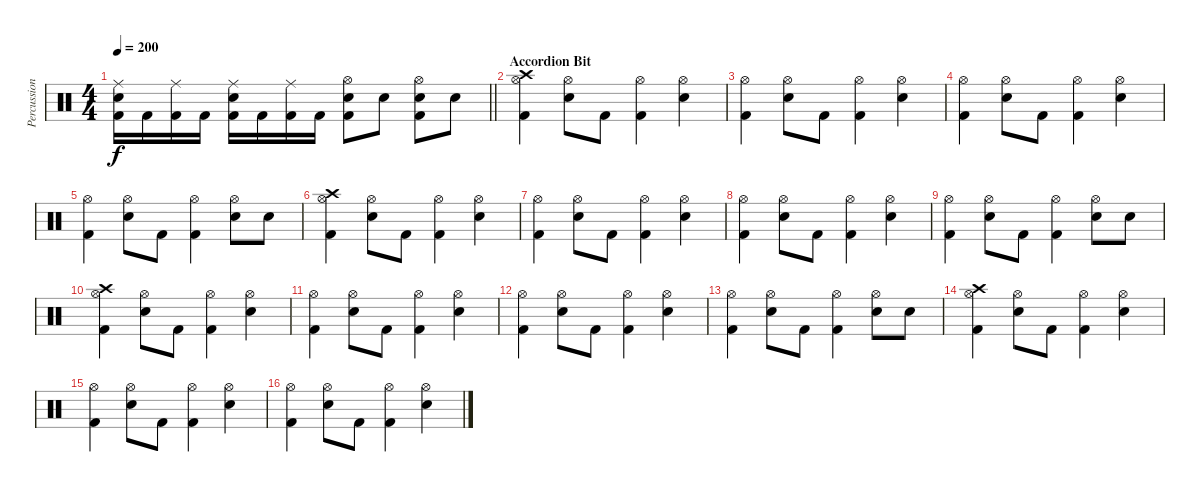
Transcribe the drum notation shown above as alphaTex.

\track ("Percussion" "Percussion") {instrument percussion}
\staff {score}
\articulation defaults
\ts (4 4)
\tempo 200
\clef neutral
\barLineRight lightlight
\ks c
("Ride (middle)" "Snare (hit) 2" "Kick (hit) 2").16{dy f} "Kick (hit) 2".16 ("Ride (middle)" "Kick (hit) 2").16 "Kick (hit) 2".16 ("Ride (middle)" "Snare (hit) 2" "Kick (hit) 2").16 "Kick (hit) 2".16 ("Ride (middle)" "Kick (hit) 2").16 "Kick (hit) 2".16 ("Hi-Hat (open)" "Snare (hit) 2" "Kick (hit) 2").8 "Snare (hit) 2".8 ("Hi-Hat (open)" "Snare (hit) 2" "Kick (hit) 2").8 "Snare (hit) 2".8 |
\section ("" "Accordion Bit")
("Crash high (hit)" "Hi-Hat (open)" "Kick (hit) 2").4 ("Hi-Hat (open)" "Snare (hit) 2").8 "Kick (hit) 2".8 ("Hi-Hat (open)" "Kick (hit) 2").4 ("Hi-Hat (open)" "Snare (hit) 2").4 |
("Hi-Hat (open)" "Kick (hit) 2").4 ("Hi-Hat (open)" "Snare (hit) 2").8 "Kick (hit) 2".8 ("Hi-Hat (open)" "Kick (hit) 2").4 ("Hi-Hat (open)" "Snare (hit) 2").4 |
("Hi-Hat (open)" "Kick (hit) 2").4 ("Hi-Hat (open)" "Snare (hit) 2").8 "Kick (hit) 2".8 ("Hi-Hat (open)" "Kick (hit) 2").4 ("Hi-Hat (open)" "Snare (hit) 2").4 |
("Hi-Hat (open)" "Kick (hit) 2").4 ("Hi-Hat (open)" "Snare (hit) 2").8 "Kick (hit) 2".8 ("Hi-Hat (open)" "Kick (hit) 2").4 ("Hi-Hat (open)" "Snare (hit) 2").8 "Snare (hit) 2".8 |
("Crash high (hit)" "Hi-Hat (open)" "Kick (hit) 2").4 ("Hi-Hat (open)" "Snare (hit) 2").8 "Kick (hit) 2".8 ("Hi-Hat (open)" "Kick (hit) 2").4 ("Hi-Hat (open)" "Snare (hit) 2").4 |
("Hi-Hat (open)" "Kick (hit) 2").4 ("Hi-Hat (open)" "Snare (hit) 2").8 "Kick (hit) 2".8 ("Hi-Hat (open)" "Kick (hit) 2").4 ("Hi-Hat (open)" "Snare (hit) 2").4 |
("Hi-Hat (open)" "Kick (hit) 2").4 ("Hi-Hat (open)" "Snare (hit) 2").8 "Kick (hit) 2".8 ("Hi-Hat (open)" "Kick (hit) 2").4 ("Hi-Hat (open)" "Snare (hit) 2").4 |
("Hi-Hat (open)" "Kick (hit) 2").4 ("Hi-Hat (open)" "Snare (hit) 2").8 "Kick (hit) 2".8 ("Hi-Hat (open)" "Kick (hit) 2").4 ("Hi-Hat (open)" "Snare (hit) 2").8 "Snare (hit) 2".8 |
("Crash high (hit)" "Hi-Hat (open)" "Kick (hit) 2").4 ("Hi-Hat (open)" "Snare (hit) 2").8 "Kick (hit) 2".8 ("Hi-Hat (open)" "Kick (hit) 2").4 ("Hi-Hat (open)" "Snare (hit) 2").4 |
("Hi-Hat (open)" "Kick (hit) 2").4 ("Hi-Hat (open)" "Snare (hit) 2").8 "Kick (hit) 2".8 ("Hi-Hat (open)" "Kick (hit) 2").4 ("Hi-Hat (open)" "Snare (hit) 2").4 |
("Hi-Hat (open)" "Kick (hit) 2").4 ("Hi-Hat (open)" "Snare (hit) 2").8 "Kick (hit) 2".8 ("Hi-Hat (open)" "Kick (hit) 2").4 ("Hi-Hat (open)" "Snare (hit) 2").4 |
("Hi-Hat (open)" "Kick (hit) 2").4 ("Hi-Hat (open)" "Snare (hit) 2").8 "Kick (hit) 2".8 ("Hi-Hat (open)" "Kick (hit) 2").4 ("Hi-Hat (open)" "Snare (hit) 2").8 "Snare (hit) 2".8 |
("Crash high (hit)" "Hi-Hat (open)" "Kick (hit) 2").4 ("Hi-Hat (open)" "Snare (hit) 2").8 "Kick (hit) 2".8 ("Hi-Hat (open)" "Kick (hit) 2").4 ("Hi-Hat (open)" "Snare (hit) 2").4 |
("Hi-Hat (open)" "Kick (hit) 2").4 ("Hi-Hat (open)" "Snare (hit) 2").8 "Kick (hit) 2".8 ("Hi-Hat (open)" "Kick (hit) 2").4 ("Hi-Hat (open)" "Snare (hit) 2").4 |
("Hi-Hat (open)" "Kick (hit) 2").4 ("Hi-Hat (open)" "Snare (hit) 2").8 "Kick (hit) 2".8 ("Hi-Hat (open)" "Kick (hit) 2").4 ("Hi-Hat (open)" "Snare (hit) 2").4
